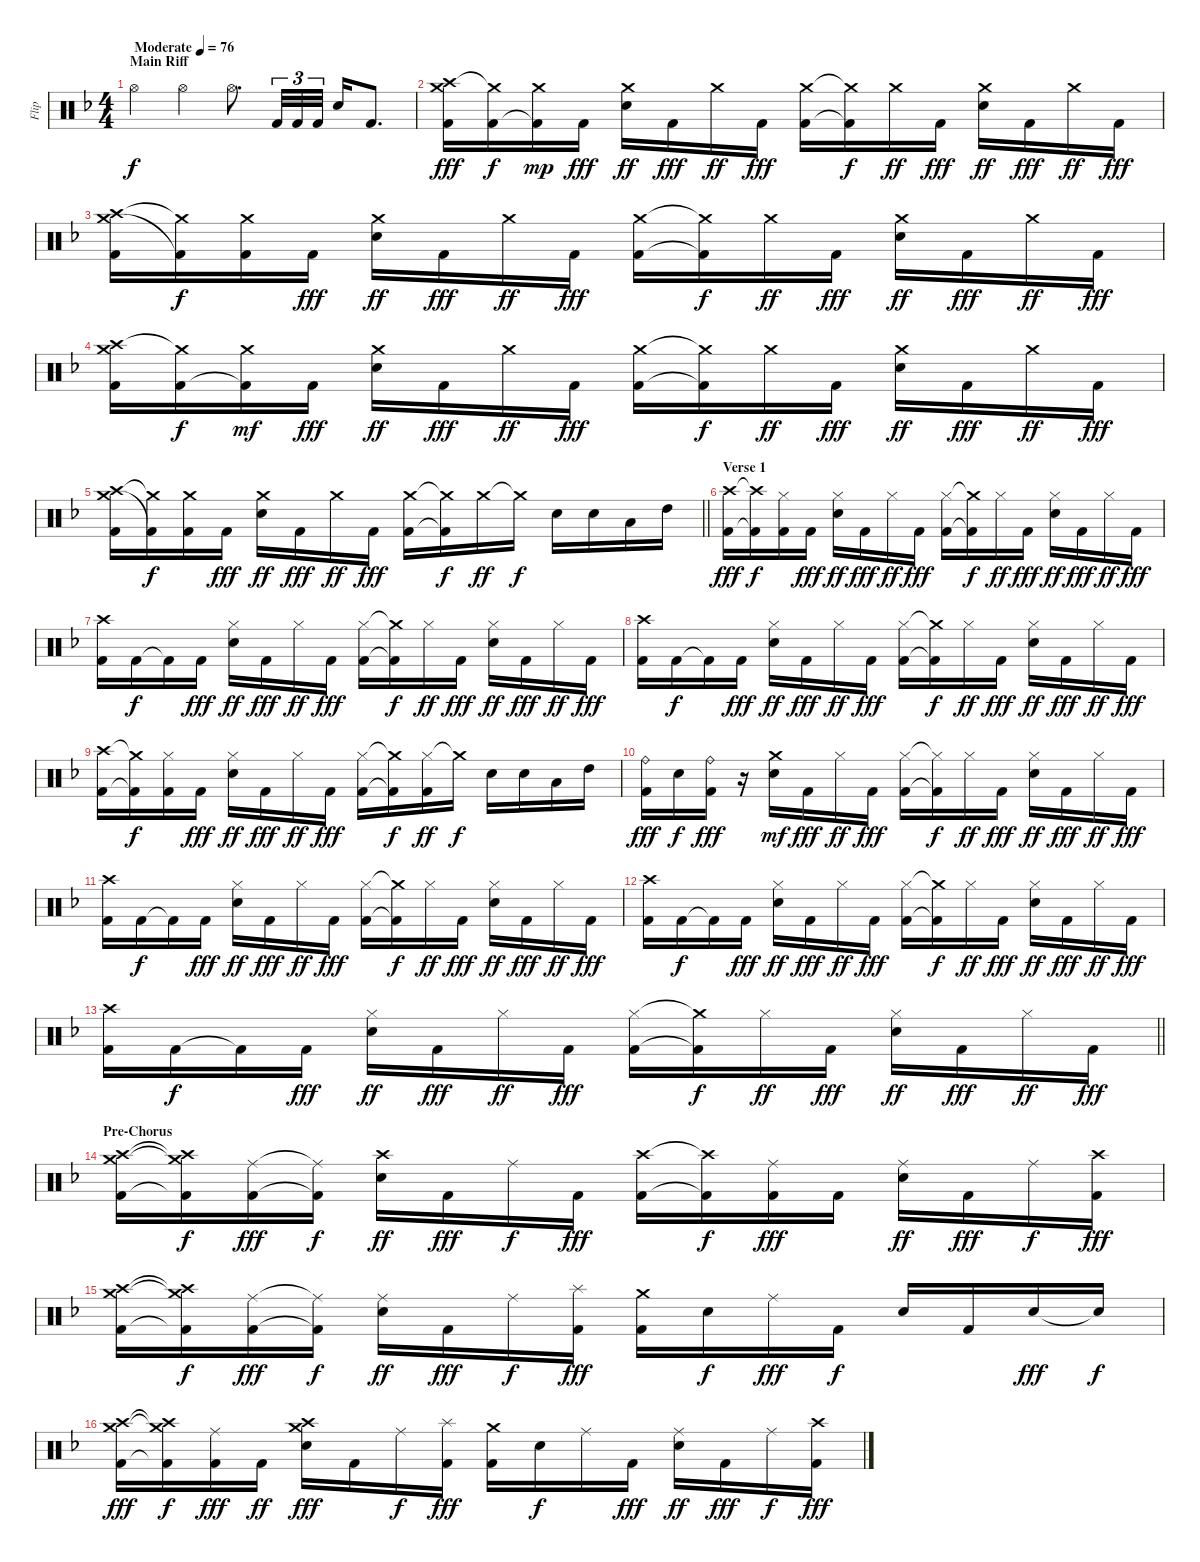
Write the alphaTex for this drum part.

\track ("Flip" "Flip") {instrument percussion}
\staff {score}
\articulation defaults
\ts (4 4)
\section ("" "Main Riff")
\tempo (76 "Moderate")
\clef neutral
\ks f "Hi-Hat (open)".4{dy f} "Hi-Hat (open)".4 "Hi-Hat (open)".8{d} "Kick (hit) 2".32{tu (3 2)} "Kick (hit) 2".32{tu (3 2)} "Kick (hit) 2".32{tu (3 2)} "Snare (hit) 2".16 "Kick (hit) 2".8{d}
|
("Crash high (hit)" "Crash medium (hit)" "Kick (hit) 2").16{dy fff} ("Crash medium (hit)"{t} "Kick (hit) 2").16{dy f} ("Crash medium (hit)" "Kick (hit) 2"{t}).16{dy mp} "Kick (hit) 2".16{dy fff} ("Crash medium (hit)" "Snare (hit) 2").16{dy ff} "Kick (hit) 2".16{dy fff} "Crash medium (hit)".16{dy ff} "Kick (hit) 2".16{dy fff} ("Crash medium (hit)" "Kick (hit) 2").16 ("Crash medium (hit)"{t} "Kick (hit) 2"{t}).16{dy f} "Crash medium (hit)".16{dy ff} "Kick (hit) 2".16{dy fff} ("Crash medium (hit)" "Snare (hit) 2").16{dy ff} "Kick (hit) 2".16{dy fff} "Crash medium (hit)".16{dy ff} "Kick (hit) 2".16{dy fff} |
("Crash high (hit)" "Crash medium (hit)" "Kick (hit) 2").16 ("Crash medium (hit)"{t} "Kick (hit) 2"{t}).16{dy f} ("Crash medium (hit)" "Kick (hit) 2").16 "Kick (hit) 2".16{dy fff} ("Crash medium (hit)" "Snare (hit) 2").16{dy ff} "Kick (hit) 2".16{dy fff} "Crash medium (hit)".16{dy ff} "Kick (hit) 2".16{dy fff} ("Crash medium (hit)" "Kick (hit) 2").16 ("Crash medium (hit)"{t} "Kick (hit) 2"{t}).16{dy f} "Crash medium (hit)".16{dy ff} "Kick (hit) 2".16{dy fff} ("Crash medium (hit)" "Snare (hit) 2").16{dy ff} "Kick (hit) 2".16{dy fff} "Crash medium (hit)".16{dy ff} "Kick (hit) 2".16{dy fff} |
("Crash high (hit)" "Crash medium (hit)" "Kick (hit) 2").16 ("Crash medium (hit)"{t} "Kick (hit) 2").16{dy f} ("Crash medium (hit)" "Kick (hit) 2"{t}).16{dy mf} "Kick (hit) 2".16{dy fff} ("Crash medium (hit)" "Snare (hit) 2").16{dy ff} "Kick (hit) 2".16{dy fff} "Crash medium (hit)".16{dy ff} "Kick (hit) 2".16{dy fff} ("Crash medium (hit)" "Kick (hit) 2").16 ("Crash medium (hit)"{t} "Kick (hit) 2"{t}).16{dy f} "Crash medium (hit)".16{dy ff} "Kick (hit) 2".16{dy fff} ("Crash medium (hit)" "Snare (hit) 2").16{dy ff} "Kick (hit) 2".16{dy fff} "Crash medium (hit)".16{dy ff} "Kick (hit) 2".16{dy fff} |
\barLineRight lightlight
("Crash high (hit)" "Crash medium (hit)" "Kick (hit) 2").16 ("Crash medium (hit)"{t} "Kick (hit) 2"{t}).16{dy f} ("Crash medium (hit)" "Kick (hit) 2").16 "Kick (hit) 2".16{dy fff} ("Crash medium (hit)" "Snare (hit) 2").16{dy ff} "Kick (hit) 2".16{dy fff} "Crash medium (hit)".16{dy ff} "Kick (hit) 2".16{dy fff} ("Crash medium (hit)" "Kick (hit) 2").16 ("Crash medium (hit)"{t} "Kick (hit) 2"{t}).16{dy f} "Crash medium (hit)".16{dy ff} "Crash medium (hit)"{t}.16{dy f} "Snare (hit) 2".16 "Snare (hit) 2".16 "Low Tom (hit)".16 "High Tom (hit)".16 |
\section ("" "Verse 1")
("Crash high (hit)" "Kick (hit) 2").16{dy fff} ("Crash high (hit)"{t} "Kick (hit) 2"{t}).16{dy f} ("Hi-Hat (closed)" "Kick (hit) 2").16 "Kick (hit) 2".16{dy fff} ("Hi-Hat (closed)" "Snare (hit) 2").16{dy ff} "Kick (hit) 2".16{dy fff} "Hi-Hat (closed)".16{dy ff} "Kick (hit) 2".16{dy fff} ("Hi-Hat (closed)" "Kick (hit) 2").16 ("Crash medium (hit)"{t} "Kick (hit) 2"{t}).16{dy f} "Hi-Hat (closed)".16{dy ff} "Kick (hit) 2".16{dy fff} ("Hi-Hat (closed)" "Snare (hit) 2").16{dy ff} "Kick (hit) 2".16{dy fff} "Hi-Hat (closed)".16{dy ff} "Kick (hit) 2".16{dy fff} |
("Crash high (hit)" "Kick (hit) 2").16 "Kick (hit) 2".16{dy f} "Kick (hit) 2"{t}.16 "Kick (hit) 2".16{dy fff} ("Hi-Hat (closed)" "Snare (hit) 2").16{dy ff} "Kick (hit) 2".16{dy fff} "Hi-Hat (closed)".16{dy ff} "Kick (hit) 2".16{dy fff} ("Hi-Hat (closed)" "Kick (hit) 2").16 ("Crash medium (hit)"{t} "Kick (hit) 2"{t}).16{dy f} "Hi-Hat (closed)".16{dy ff} "Kick (hit) 2".16{dy fff} ("Hi-Hat (closed)" "Snare (hit) 2").16{dy ff} "Kick (hit) 2".16{dy fff} "Hi-Hat (closed)".16{dy ff} "Kick (hit) 2".16{dy fff} |
("Crash high (hit)" "Kick (hit) 2").16 "Kick (hit) 2".16{dy f} "Kick (hit) 2"{t}.16 "Kick (hit) 2".16{dy fff} ("Hi-Hat (closed)" "Snare (hit) 2").16{dy ff} "Kick (hit) 2".16{dy fff} "Hi-Hat (closed)".16{dy ff} "Kick (hit) 2".16{dy fff} ("Hi-Hat (closed)" "Kick (hit) 2").16 ("Crash medium (hit)"{t} "Kick (hit) 2"{t}).16{dy f} "Hi-Hat (closed)".16{dy ff} "Kick (hit) 2".16{dy fff} ("Hi-Hat (closed)" "Snare (hit) 2").16{dy ff} "Kick (hit) 2".16{dy fff} "Hi-Hat (closed)".16{dy ff} "Kick (hit) 2".16{dy fff} |
("Crash high (hit)" "Kick (hit) 2").16 ("Crash medium (hit)"{t} "Kick (hit) 2"{t}).16{dy f} ("Hi-Hat (closed)" "Kick (hit) 2").16 "Kick (hit) 2".16{dy fff} ("Hi-Hat (closed)" "Snare (hit) 2").16{dy ff} "Kick (hit) 2".16{dy fff} "Hi-Hat (closed)".16{dy ff} "Kick (hit) 2".16{dy fff} ("Hi-Hat (closed)" "Kick (hit) 2").16 ("Crash medium (hit)"{t} "Kick (hit) 2"{t}).16{dy f} ("Hi-Hat (closed)" "Kick (hit) 2").16{dy ff} "Crash medium (hit)"{t}.16{dy f} "Snare (hit) 2".16 "Snare (hit) 2".16 "Low Tom (hit)".16 "High Tom (hit)".16 |
("Ride (bell)" "Kick (hit) 2").16{dy fff} "Snare (hit) 2".16{dy f} ("Ride (bell)" "Kick (hit) 2").16{dy fff} r.16 ("Crash medium (hit)" "Snare (hit) 2").16{dy mf} "Kick (hit) 2".16{dy fff} "Hi-Hat (closed)".16{dy ff} "Kick (hit) 2".16{dy fff} ("Hi-Hat (closed)" "Kick (hit) 2").16 ("Hi-Hat (closed)"{t} "Kick (hit) 2"{t}).16{dy f} "Hi-Hat (closed)".16{dy ff} "Kick (hit) 2".16{dy fff} ("Hi-Hat (closed)" "Snare (hit) 2").16{dy ff} "Kick (hit) 2".16{dy fff} "Hi-Hat (closed)".16{dy ff} "Kick (hit) 2".16{dy fff} |
("Crash high (hit)" "Kick (hit) 2").16 "Kick (hit) 2".16{dy f} "Kick (hit) 2"{t}.16 "Kick (hit) 2".16{dy fff} ("Hi-Hat (closed)" "Snare (hit) 2").16{dy ff} "Kick (hit) 2".16{dy fff} "Hi-Hat (closed)".16{dy ff} "Kick (hit) 2".16{dy fff} ("Hi-Hat (closed)" "Kick (hit) 2").16 ("Crash medium (hit)"{t} "Kick (hit) 2"{t}).16{dy f} "Hi-Hat (closed)".16{dy ff} "Kick (hit) 2".16{dy fff} ("Hi-Hat (closed)" "Snare (hit) 2").16{dy ff} "Kick (hit) 2".16{dy fff} "Hi-Hat (closed)".16{dy ff} "Kick (hit) 2".16{dy fff} |
("Crash high (hit)" "Kick (hit) 2").16 "Kick (hit) 2".16{dy f} "Kick (hit) 2"{t}.16 "Kick (hit) 2".16{dy fff} ("Hi-Hat (closed)" "Snare (hit) 2").16{dy ff} "Kick (hit) 2".16{dy fff} "Hi-Hat (closed)".16{dy ff} "Kick (hit) 2".16{dy fff} ("Hi-Hat (closed)" "Kick (hit) 2").16 ("Crash medium (hit)"{t} "Kick (hit) 2"{t}).16{dy f} "Hi-Hat (closed)".16{dy ff} "Kick (hit) 2".16{dy fff} ("Hi-Hat (closed)" "Snare (hit) 2").16{dy ff} "Kick (hit) 2".16{dy fff} "Hi-Hat (closed)".16{dy ff} "Kick (hit) 2".16{dy fff} |
\barLineRight lightlight
("Crash high (hit)" "Kick (hit) 2").16 "Kick (hit) 2".16{dy f} "Kick (hit) 2"{t}.16 "Kick (hit) 2".16{dy fff} ("Hi-Hat (closed)" "Snare (hit) 2").16{dy ff} "Kick (hit) 2".16{dy fff} "Hi-Hat (closed)".16{dy ff} "Kick (hit) 2".16{dy fff} ("Hi-Hat (closed)" "Kick (hit) 2").16 ("Crash medium (hit)"{t} "Kick (hit) 2"{t}).16{dy f} "Hi-Hat (closed)".16{dy ff} "Kick (hit) 2".16{dy fff} ("Hi-Hat (closed)" "Snare (hit) 2").16{dy ff} "Kick (hit) 2".16{dy fff} "Hi-Hat (closed)".16{dy ff} "Kick (hit) 2".16{dy fff} |
\section ("" "Pre-Chorus")
("Crash medium (hit)" "Crash high (hit)" "Kick (hit) 2").16 ("Crash medium (hit)"{t} "Crash high (hit)"{t} "Kick (hit) 2"{t}).16{dy f} ("Ride (middle)" "Kick (hit) 2").16{dy fff} ("Ride (middle)"{t} "Kick (hit) 2"{t}).16{dy f} ("Crash high (hit)" "Snare (hit) 2").16{dy ff} "Kick (hit) 2".16{dy fff} "Ride (middle)".16{dy f} "Kick (hit) 2".16{dy fff} ("Crash high (hit)" "Kick (hit) 2").16 ("Crash high (hit)"{t} "Kick (hit) 2"{t}).16{dy f} ("Ride (middle)" "Kick (hit) 2").16{dy fff} "Kick (hit) 2".16 ("Ride (middle)" "Snare (hit) 2").16{dy ff} "Kick (hit) 2".16{dy fff} "Ride (middle)".16{dy f} ("Crash high (hit)" "Kick (hit) 2").16{dy fff} |
("Crash medium (hit)" "Crash high (hit)" "Kick (hit) 2").16 ("Crash medium (hit)"{t} "Crash high (hit)"{t} "Kick (hit) 2"{t}).16{dy f} ("Ride (middle)" "Kick (hit) 2").16{dy fff} ("Ride (middle)"{t} "Kick (hit) 2"{t}).16{dy f} ("Ride (middle)" "Snare (hit) 2").16{dy ff} "Kick (hit) 2".16{dy fff} "Ride (middle)".16{dy f} ("Splash (hit)" "Kick (hit) 2").16{dy fff} ("Crash medium (hit)" "Kick (hit) 2").16 "Snare (hit) 2".16{dy f} "Ride (middle)".16{dy fff} "Kick (hit) 2".16{dy f} "Snare (hit) 2".16 "Kick (hit) 2".16 "Snare (hit) 2".16{dy fff} "Snare (hit) 2"{t}.16{dy f} |
("Crash medium (hit)" "Crash high (hit)" "Kick (hit) 2").16{dy fff} ("Crash medium (hit)"{t} "Crash high (hit)"{t} "Kick (hit) 2"{t}).16{dy f} ("Ride (middle)" "Kick (hit) 2").16{dy fff} "Kick (hit) 2".16{dy ff} ("Crash high (hit)" "Crash medium (hit)" "Snare (hit) 2").16{dy fff} "Kick (hit) 2".16 "Ride (middle)".16{dy f} ("Splash (hit)" "Kick (hit) 2").16{dy fff} ("Crash medium (hit)" "Kick (hit) 2").16 "Snare (hit) 2".16{dy f} "Ride (middle)".16 "Kick (hit) 2".16{dy fff} ("Ride (middle)" "Snare (hit) 2").16{dy ff} "Kick (hit) 2".16{dy fff} "Ride (middle)".16{dy f} ("Crash high (hit)" "Kick (hit) 2").16{dy fff}
